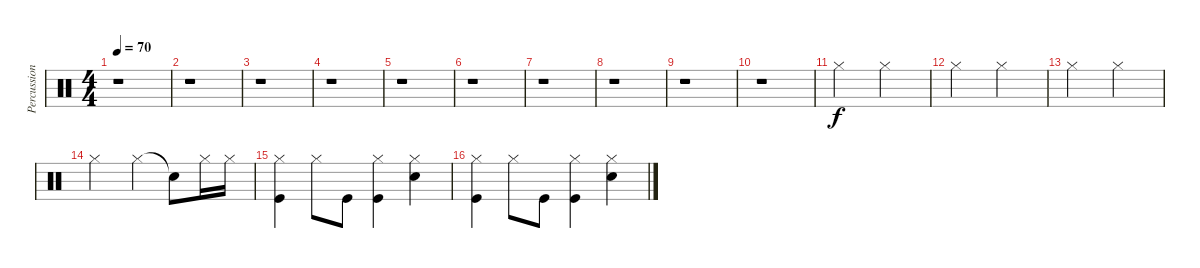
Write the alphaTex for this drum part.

\track ("Percussion" "Percussion") {instrument percussion}
\staff {score}
\articulation defaults
\ts (4 4)
\tempo 70
\clef neutral
\ks c
r.1{dy f} |
r.1 |
r.1 |
r.1 |
r.1 |
r.1 |
r.1 |
r.1 |
r.1 |
r.1 |
"Hi-Hat (closed)".2 "Hi-Hat (closed)".2 |
"Hi-Hat (closed)".2 "Hi-Hat (closed)".2 |
"Hi-Hat (closed)".2 "Hi-Hat (closed)".2 |
"Hi-Hat (closed)".2 "Hi-Hat (closed)".4 "Snare (hit)"{t}.8 "Hi-Hat (closed)".16 "Hi-Hat (closed)".16 |
("Kick (hit)" "Hi-Hat (closed)").4 "Hi-Hat (closed)".8 "Kick (hit)".8 ("Kick (hit)" "Hi-Hat (closed)").4 ("Electric Snare (hit)" "Hi-Hat (closed)").4 |
("Kick (hit)" "Hi-Hat (closed)").4 "Hi-Hat (closed)".8 "Kick (hit)".8 ("Kick (hit)" "Hi-Hat (closed)").4 ("Electric Snare (hit)" "Hi-Hat (closed)").4
